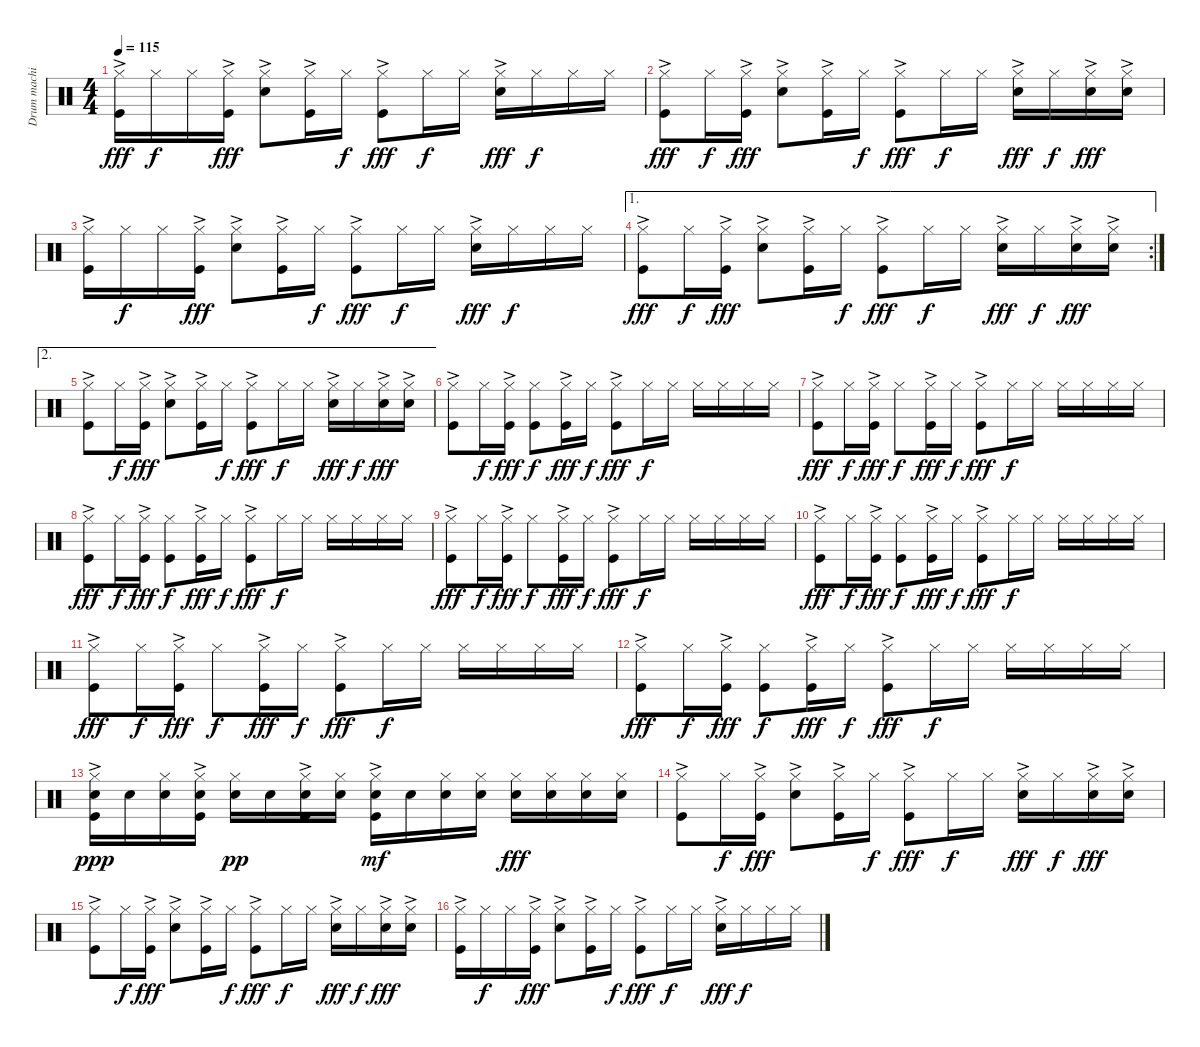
\track ("Drum machine" "Drum machi") {instrument percussion}
\staff {score}
\articulation defaults
\ts (4 4)
\tempo 115
\clef neutral
\ks c
("Hi-Hat (closed)" "Kick (hit)"{ac}).16{dy fff} "Hi-Hat (closed)".16{dy f} "Hi-Hat (closed)".16 ("Hi-Hat (closed)" "Kick (hit)"{ac}).16{dy fff} ("Hi-Hat (closed)" "Snare (hit) 2"{ac}).8 ("Hi-Hat (closed)" "Kick (hit)"{ac}).16 "Hi-Hat (closed)".16{dy f} ("Hi-Hat (closed)" "Kick (hit)"{ac}).8{dy fff} "Hi-Hat (closed)".16{dy f} "Hi-Hat (closed)".16 ("Hi-Hat (closed)" "Snare (hit) 2"{ac}).16{dy fff} "Hi-Hat (closed)".16{dy f} "Hi-Hat (closed)".16 "Hi-Hat (closed)".16 |
("Hi-Hat (closed)" "Kick (hit)"{ac}).8{dy fff} "Hi-Hat (closed)".16{dy f} ("Hi-Hat (closed)" "Kick (hit)"{ac}).16{dy fff} ("Hi-Hat (closed)" "Snare (hit) 2"{ac}).8 ("Hi-Hat (closed)" "Kick (hit)"{ac}).16 "Hi-Hat (closed)".16{dy f} ("Hi-Hat (closed)" "Kick (hit)"{ac}).8{dy fff} "Hi-Hat (closed)".16{dy f} "Hi-Hat (closed)".16 ("Hi-Hat (closed)" "Snare (hit) 2"{ac}).16{dy fff} "Hi-Hat (closed)".16{dy f} ("Hi-Hat (closed)" "Snare (hit) 2"{ac}).16{dy fff} ("Hi-Hat (closed)" "Snare (hit) 2"{ac}).16 |
("Hi-Hat (closed)" "Kick (hit)"{ac}).16 "Hi-Hat (closed)".16{dy f} "Hi-Hat (closed)".16 ("Hi-Hat (closed)" "Kick (hit)"{ac}).16{dy fff} ("Hi-Hat (closed)" "Snare (hit) 2"{ac}).8 ("Hi-Hat (closed)" "Kick (hit)"{ac}).16 "Hi-Hat (closed)".16{dy f} ("Hi-Hat (closed)" "Kick (hit)"{ac}).8{dy fff} "Hi-Hat (closed)".16{dy f} "Hi-Hat (closed)".16 ("Hi-Hat (closed)" "Snare (hit) 2"{ac}).16{dy fff} "Hi-Hat (closed)".16{dy f} "Hi-Hat (closed)".16 "Hi-Hat (closed)".16 |
\ae 1
\rc 2
("Hi-Hat (closed)" "Kick (hit)"{ac}).8{dy fff} "Hi-Hat (closed)".16{dy f} ("Hi-Hat (closed)" "Kick (hit)"{ac}).16{dy fff} ("Hi-Hat (closed)" "Snare (hit) 2"{ac}).8 ("Hi-Hat (closed)" "Kick (hit)"{ac}).16 "Hi-Hat (closed)".16{dy f} ("Hi-Hat (closed)" "Kick (hit)"{ac}).8{dy fff} "Hi-Hat (closed)".16{dy f} "Hi-Hat (closed)".16 ("Hi-Hat (closed)" "Snare (hit) 2"{ac}).16{dy fff} "Hi-Hat (closed)".16{dy f} ("Hi-Hat (closed)" "Snare (hit) 2"{ac}).16{dy fff} ("Hi-Hat (closed)" "Snare (hit) 2"{ac}).16 |
\ae 2
("Hi-Hat (closed)" "Kick (hit)"{ac}).8 "Hi-Hat (closed)".16{dy f} ("Hi-Hat (closed)" "Kick (hit)"{ac}).16{dy fff} ("Hi-Hat (closed)" "Snare (hit) 2"{ac}).8 ("Hi-Hat (closed)" "Kick (hit)"{ac}).16 "Hi-Hat (closed)".16{dy f} ("Hi-Hat (closed)" "Kick (hit)"{ac}).8{dy fff} "Hi-Hat (closed)".16{dy f} "Hi-Hat (closed)".16 ("Hi-Hat (closed)" "Snare (hit) 2"{ac}).16{dy fff} "Hi-Hat (closed)".16{dy f} ("Hi-Hat (closed)" "Snare (hit) 2"{ac}).16{dy fff} ("Hi-Hat (closed)" "Snare (hit) 2"{ac}).16 |
("Hi-Hat (closed)" "Kick (hit)"{ac}).8 "Hi-Hat (closed)".16{dy f} ("Hi-Hat (closed)" "Kick (hit)"{ac}).16{dy fff} ("Hi-Hat (closed)" "Kick (hit)").8{dy f} ("Hi-Hat (closed)" "Kick (hit)"{ac}).16{dy fff} "Hi-Hat (closed)".16{dy f} ("Hi-Hat (closed)" "Kick (hit)"{ac}).8{dy fff} "Hi-Hat (closed)".16{dy f} "Hi-Hat (closed)".16 "Hi-Hat (closed)".16 "Hi-Hat (closed)".16 "Hi-Hat (closed)".16 "Hi-Hat (closed)".16 |
("Hi-Hat (closed)" "Kick (hit)"{ac}).8{dy fff} "Hi-Hat (closed)".16{dy f} ("Hi-Hat (closed)" "Kick (hit)"{ac}).16{dy fff} "Hi-Hat (closed)".8{dy f} ("Hi-Hat (closed)" "Kick (hit)"{ac}).16{dy fff} "Hi-Hat (closed)".16{dy f} ("Hi-Hat (closed)" "Kick (hit)"{ac}).8{dy fff} "Hi-Hat (closed)".16{dy f} "Hi-Hat (closed)".16 "Hi-Hat (closed)".16 "Hi-Hat (closed)".16 "Hi-Hat (closed)".16 "Hi-Hat (closed)".16 |
("Hi-Hat (closed)" "Kick (hit)"{ac}).8{dy fff} "Hi-Hat (closed)".16{dy f} ("Hi-Hat (closed)" "Kick (hit)"{ac}).16{dy fff} ("Hi-Hat (closed)" "Kick (hit)").8{dy f} ("Hi-Hat (closed)" "Kick (hit)"{ac}).16{dy fff} "Hi-Hat (closed)".16{dy f} ("Hi-Hat (closed)" "Kick (hit)"{ac}).8{dy fff} "Hi-Hat (closed)".16{dy f} "Hi-Hat (closed)".16 "Hi-Hat (closed)".16 "Hi-Hat (closed)".16 "Hi-Hat (closed)".16 "Hi-Hat (closed)".16 |
("Hi-Hat (closed)" "Kick (hit)"{ac}).8{dy fff} "Hi-Hat (closed)".16{dy f} ("Hi-Hat (closed)" "Kick (hit)"{ac}).16{dy fff} "Hi-Hat (closed)".8{dy f} ("Hi-Hat (closed)" "Kick (hit)"{ac}).16{dy fff} "Hi-Hat (closed)".16{dy f} ("Hi-Hat (closed)" "Kick (hit)"{ac}).8{dy fff} "Hi-Hat (closed)".16{dy f} "Hi-Hat (closed)".16 "Hi-Hat (closed)".16 "Hi-Hat (closed)".16 "Hi-Hat (closed)".16 "Hi-Hat (closed)".16 |
("Hi-Hat (closed)" "Kick (hit)"{ac}).8{dy fff} "Hi-Hat (closed)".16{dy f} ("Hi-Hat (closed)" "Kick (hit)"{ac}).16{dy fff} ("Hi-Hat (closed)" "Kick (hit)").8{dy f} ("Hi-Hat (closed)" "Kick (hit)"{ac}).16{dy fff} "Hi-Hat (closed)".16{dy f} ("Hi-Hat (closed)" "Kick (hit)"{ac}).8{dy fff} "Hi-Hat (closed)".16{dy f} "Hi-Hat (closed)".16 "Hi-Hat (closed)".16 "Hi-Hat (closed)".16 "Hi-Hat (closed)".16 "Hi-Hat (closed)".16 |
("Hi-Hat (closed)" "Kick (hit)"{ac}).8{dy fff} "Hi-Hat (closed)".16{dy f} ("Hi-Hat (closed)" "Kick (hit)"{ac}).16{dy fff} "Hi-Hat (closed)".8{dy f} ("Hi-Hat (closed)" "Kick (hit)"{ac}).16{dy fff} "Hi-Hat (closed)".16{dy f} ("Hi-Hat (closed)" "Kick (hit)"{ac}).8{dy fff} "Hi-Hat (closed)".16{dy f} "Hi-Hat (closed)".16 "Hi-Hat (closed)".16 "Hi-Hat (closed)".16 "Hi-Hat (closed)".16 "Hi-Hat (closed)".16 |
("Hi-Hat (closed)" "Kick (hit)"{ac}).8{dy fff} "Hi-Hat (closed)".16{dy f} ("Hi-Hat (closed)" "Kick (hit)"{ac}).16{dy fff} ("Hi-Hat (closed)" "Kick (hit)").8{dy f} ("Hi-Hat (closed)" "Kick (hit)"{ac}).16{dy fff} "Hi-Hat (closed)".16{dy f} ("Hi-Hat (closed)" "Kick (hit)"{ac}).8{dy fff} "Hi-Hat (closed)".16{dy f} "Hi-Hat (closed)".16 "Hi-Hat (closed)".16 "Hi-Hat (closed)".16 "Hi-Hat (closed)".16 "Hi-Hat (closed)".16 |
("Hi-Hat (closed)" "Snare (hit) 2" "Kick (hit)"{ac}).16{dy ppp} "Snare (hit) 2".16 ("Hi-Hat (closed)" "Snare (hit) 2").16 ("Hi-Hat (closed)" "Snare (hit) 2" "Kick (hit)"{ac}).16 ("Hi-Hat (closed)" "Snare (hit) 2").16{dy pp} "Snare (hit) 2".16 ("Hi-Hat (closed)" "Snare (hit) 2" "Kick (hit)"{ac}).16 ("Hi-Hat (closed)" "Snare (hit) 2").16 ("Hi-Hat (closed)" "Snare (hit) 2" "Kick (hit)"{ac}).16{dy mf} "Snare (hit) 2".16 ("Hi-Hat (closed)" "Snare (hit) 2").16 ("Hi-Hat (closed)" "Snare (hit) 2").16 ("Hi-Hat (closed)" "Snare (hit) 2").16{dy fff} ("Hi-Hat (closed)" "Snare (hit) 2").16 ("Hi-Hat (closed)" "Snare (hit) 2").16 ("Hi-Hat (closed)" "Snare (hit) 2").16 |
("Hi-Hat (closed)" "Kick (hit)"{ac}).8 "Hi-Hat (closed)".16{dy f} ("Hi-Hat (closed)" "Kick (hit)"{ac}).16{dy fff} ("Hi-Hat (closed)" "Snare (hit) 2"{ac}).8 ("Hi-Hat (closed)" "Kick (hit)"{ac}).16 "Hi-Hat (closed)".16{dy f} ("Hi-Hat (closed)" "Kick (hit)"{ac}).8{dy fff} "Hi-Hat (closed)".16{dy f} "Hi-Hat (closed)".16 ("Hi-Hat (closed)" "Snare (hit) 2"{ac}).16{dy fff} "Hi-Hat (closed)".16{dy f} ("Hi-Hat (closed)" "Snare (hit) 2"{ac}).16{dy fff} ("Hi-Hat (closed)" "Snare (hit) 2"{ac}).16 |
("Hi-Hat (closed)" "Kick (hit)"{ac}).8 "Hi-Hat (closed)".16{dy f} ("Hi-Hat (closed)" "Kick (hit)"{ac}).16{dy fff} ("Hi-Hat (closed)" "Snare (hit) 2"{ac}).8 ("Hi-Hat (closed)" "Kick (hit)"{ac}).16 "Hi-Hat (closed)".16{dy f} ("Hi-Hat (closed)" "Kick (hit)"{ac}).8{dy fff} "Hi-Hat (closed)".16{dy f} "Hi-Hat (closed)".16 ("Hi-Hat (closed)" "Snare (hit) 2"{ac}).16{dy fff} "Hi-Hat (closed)".16{dy f} ("Hi-Hat (closed)" "Snare (hit) 2"{ac}).16{dy fff} ("Hi-Hat (closed)" "Snare (hit) 2"{ac}).16 |
("Hi-Hat (closed)" "Kick (hit)"{ac}).16 "Hi-Hat (closed)".16{dy f} "Hi-Hat (closed)".16 ("Hi-Hat (closed)" "Kick (hit)"{ac}).16{dy fff} ("Hi-Hat (closed)" "Snare (hit) 2"{ac}).8 ("Hi-Hat (closed)" "Kick (hit)"{ac}).16 "Hi-Hat (closed)".16{dy f} ("Hi-Hat (closed)" "Kick (hit)"{ac}).8{dy fff} "Hi-Hat (closed)".16{dy f} "Hi-Hat (closed)".16 ("Hi-Hat (closed)" "Snare (hit) 2"{ac}).16{dy fff} "Hi-Hat (closed)".16{dy f} "Hi-Hat (closed)".16 "Hi-Hat (closed)".16
